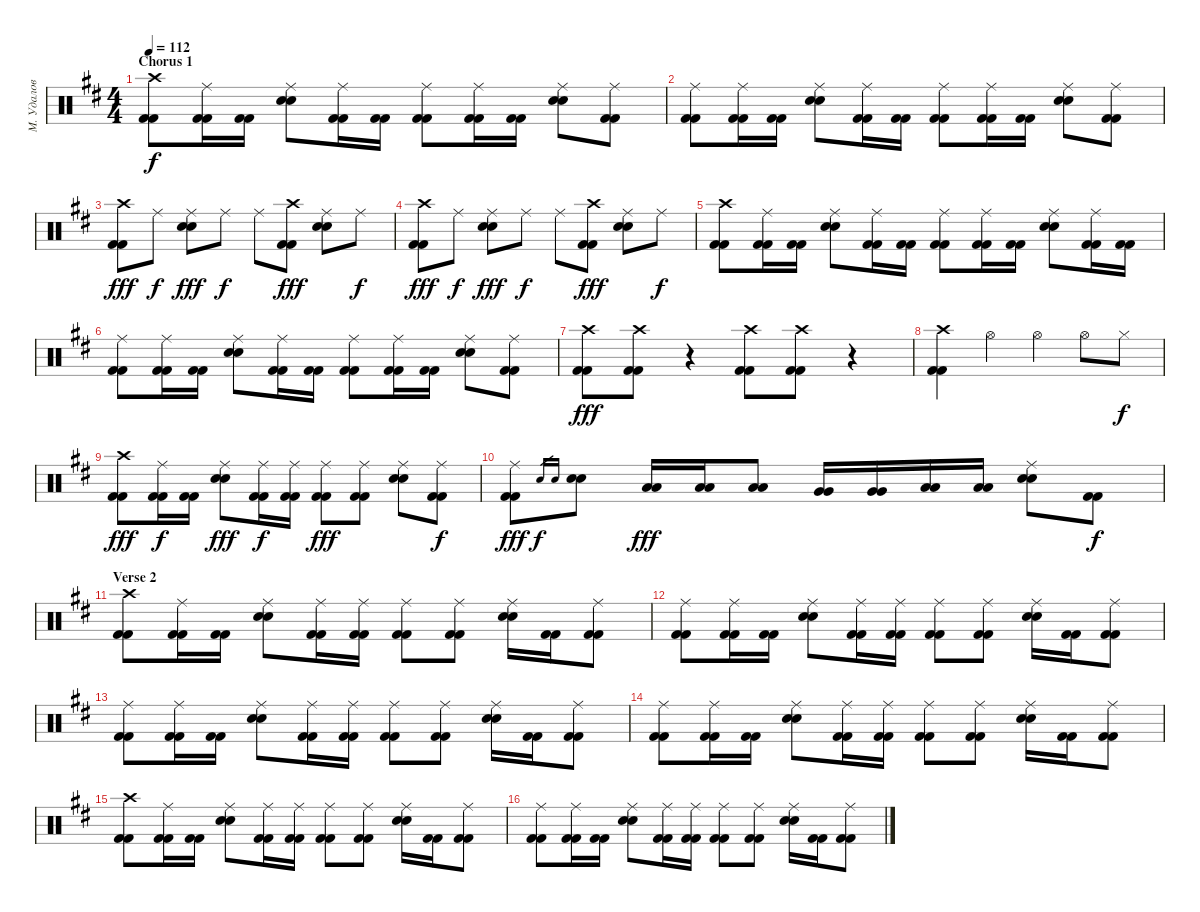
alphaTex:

\track ("М. Удалов" "М. Удалов") {instrument percussion}
\staff {score}
\articulation defaults
\ts (4 4)
\section ("" "Chorus 1")
\tempo 112
\clef neutral
\ks d
("Crash high (hit)" "Kick (hit) 2" "Kick (hit) 2").8{dy f} ("Ride (middle)" "Kick (hit) 2" "Kick (hit) 2").16 ("Kick (hit) 2" "Kick (hit) 2").16 ("Ride (middle)" "Electric Snare (hit)" "Electric Snare (hit)").8 ("Ride (middle)" "Kick (hit) 2" "Kick (hit) 2").16 ("Kick (hit) 2" "Kick (hit) 2").16 ("Ride (middle)" "Kick (hit) 2" "Kick (hit) 2").8 ("Ride (middle)" "Kick (hit) 2" "Kick (hit) 2").16 ("Kick (hit) 2" "Kick (hit) 2").16 ("Ride (middle)" "Electric Snare (hit)" "Electric Snare (hit)").8 ("Ride (middle)" "Kick (hit) 2" "Kick (hit) 2").8 |
("Ride (middle)" "Kick (hit) 2" "Kick (hit) 2").8 ("Ride (middle)" "Kick (hit) 2" "Kick (hit) 2").16 ("Kick (hit) 2" "Kick (hit) 2").16 ("Ride (middle)" "Electric Snare (hit)" "Electric Snare (hit)").8 ("Ride (middle)" "Kick (hit) 2" "Kick (hit) 2").16 ("Kick (hit) 2" "Kick (hit) 2").16 ("Ride (middle)" "Kick (hit) 2" "Kick (hit) 2").8 ("Ride (middle)" "Kick (hit) 2" "Kick (hit) 2").16 ("Kick (hit) 2" "Kick (hit) 2").16 ("Ride (middle)" "Electric Snare (hit)" "Electric Snare (hit)").8 ("Ride (middle)" "Kick (hit) 2" "Kick (hit) 2").8 |
("Crash high (hit)" "Kick (hit) 2" "Kick (hit) 2").8{dy fff} "Ride (middle)".8{dy f} ("Ride (middle)" "Electric Snare (hit)" "Electric Snare (hit)").8{dy fff} "Ride (middle)".8{dy f} "Ride (middle)".8 ("Crash high (hit)" "Kick (hit) 2" "Kick (hit) 2").8{dy fff} ("Ride (middle)" "Electric Snare (hit)" "Electric Snare (hit)").8 "Ride (middle)".8{dy f} |
("Crash high (hit)" "Kick (hit) 2" "Kick (hit) 2").8{dy fff} "Ride (middle)".8{dy f} ("Ride (middle)" "Electric Snare (hit)" "Electric Snare (hit)").8{dy fff} "Ride (middle)".8{dy f} "Ride (middle)".8 ("Crash high (hit)" "Kick (hit) 2" "Kick (hit) 2").8{dy fff} ("Ride (middle)" "Electric Snare (hit)" "Electric Snare (hit)").8 "Ride (middle)".8{dy f} |
("Crash high (hit)" "Kick (hit) 2" "Kick (hit) 2").8 ("Ride (middle)" "Kick (hit) 2" "Kick (hit) 2").16 ("Kick (hit) 2" "Kick (hit) 2").16 ("Ride (middle)" "Electric Snare (hit)" "Electric Snare (hit)").8 ("Ride (middle)" "Kick (hit) 2" "Kick (hit) 2").16 ("Kick (hit) 2" "Kick (hit) 2").16 ("Ride (middle)" "Kick (hit) 2" "Kick (hit) 2").8 ("Ride (middle)" "Kick (hit) 2" "Kick (hit) 2").16 ("Kick (hit) 2" "Kick (hit) 2").16 ("Ride (middle)" "Electric Snare (hit)" "Electric Snare (hit)").8 ("Ride (middle)" "Kick (hit) 2" "Kick (hit) 2").16 ("Kick (hit) 2" "Kick (hit) 2").16 |
("Ride (middle)" "Kick (hit) 2" "Kick (hit) 2").8 ("Ride (middle)" "Kick (hit) 2" "Kick (hit) 2").16 ("Kick (hit) 2" "Kick (hit) 2").16 ("Ride (middle)" "Electric Snare (hit)" "Electric Snare (hit)").8 ("Ride (middle)" "Kick (hit) 2" "Kick (hit) 2").16 ("Kick (hit) 2" "Kick (hit) 2").16 ("Ride (middle)" "Kick (hit) 2" "Kick (hit) 2").8 ("Ride (middle)" "Kick (hit) 2" "Kick (hit) 2").16 ("Kick (hit) 2" "Kick (hit) 2").16 ("Ride (middle)" "Electric Snare (hit)" "Electric Snare (hit)").8 ("Ride (middle)" "Kick (hit) 2" "Kick (hit) 2").8 |
("Crash high (hit)" "Kick (hit) 2" "Kick (hit) 2").8{dy fff} ("Crash high (hit)" "Kick (hit) 2" "Kick (hit) 2").8 r.4 ("Crash high (hit)" "Kick (hit) 2" "Kick (hit) 2").8 ("Crash high (hit)" "Kick (hit) 2" "Kick (hit) 2").8 r.4 |
("Crash high (hit)" "Kick (hit) 2" "Kick (hit) 2").4 "Hi-Hat (open)".4 "Hi-Hat (open)".4 "Hi-Hat (open)".8 "Hi-Hat (closed)".8{dy f} |
("Crash high (hit)" "Kick (hit) 2" "Kick (hit) 2").8{dy fff} ("Ride (middle)" "Kick (hit) 2" "Kick (hit) 2").16{dy f} ("Kick (hit) 2" "Kick (hit) 2").16 ("Ride (middle)" "Electric Snare (hit)" "Electric Snare (hit)").8{dy fff} ("Ride (middle)" "Kick (hit) 2" "Kick (hit) 2").16{dy f} ("Ride (middle)" "Kick (hit) 2" "Kick (hit) 2").16 ("Ride (middle)" "Kick (hit) 2" "Kick (hit) 2").8{dy fff} ("Ride (middle)" "Kick (hit) 2" "Kick (hit) 2").8 ("Ride (middle)" "Electric Snare (hit)" "Electric Snare (hit)").8 ("Ride (middle)" "Kick (hit) 2" "Kick (hit) 2").8{dy f} |
("Ride (middle)" "Kick (hit) 2" "Kick (hit) 2").8{dy fff} "Electric Snare (hit)".16{gr dy f} "Electric Snare (hit)".16{gr} ("Electric Snare (hit)" "Electric Snare (hit)").8 ("Low Tom (hit)" "Low Tom (hit)").16{dy fff} ("Low Tom (hit)" "Low Tom (hit)").16 ("Low Tom (hit)" "Low Tom (hit)").8 ("Very Low Tom (hit)" "Very Low Tom (hit)").16 ("Very Low Tom (hit)" "Very Low Tom (hit)").16 ("Low Tom (hit)" "Low Tom (hit)").16 ("Low Tom (hit)" "Low Tom (hit)").16 ("Ride (middle)" "Electric Snare (hit)" "Electric Snare (hit)").8 ("Kick (hit) 2" "Kick (hit) 2").8{dy f} |
\section ("" "Verse 2")
("Crash high (hit)" "Kick (hit) 2" "Kick (hit) 2").8 ("Ride (middle)" "Kick (hit) 2" "Kick (hit) 2").16 ("Kick (hit) 2" "Kick (hit) 2").16 ("Ride (middle)" "Electric Snare (hit)" "Electric Snare (hit)").8 ("Ride (middle)" "Kick (hit) 2" "Kick (hit) 2").16 ("Ride (middle)" "Kick (hit) 2" "Kick (hit) 2").16 ("Ride (middle)" "Kick (hit) 2" "Kick (hit) 2").8 ("Ride (middle)" "Kick (hit) 2" "Kick (hit) 2").8 ("Ride (middle)" "Electric Snare (hit)" "Electric Snare (hit)").16 ("Kick (hit) 2" "Kick (hit) 2").16 ("Ride (middle)" "Kick (hit) 2" "Kick (hit) 2").8 |
("Ride (middle)" "Kick (hit) 2" "Kick (hit) 2").8 ("Ride (middle)" "Kick (hit) 2" "Kick (hit) 2").16 ("Kick (hit) 2" "Kick (hit) 2").16 ("Ride (middle)" "Electric Snare (hit)" "Electric Snare (hit)").8 ("Ride (middle)" "Kick (hit) 2" "Kick (hit) 2").16 ("Ride (middle)" "Kick (hit) 2" "Kick (hit) 2").16 ("Ride (middle)" "Kick (hit) 2" "Kick (hit) 2").8 ("Ride (middle)" "Kick (hit) 2" "Kick (hit) 2").8 ("Ride (middle)" "Electric Snare (hit)" "Electric Snare (hit)").16 ("Kick (hit) 2" "Kick (hit) 2").16 ("Ride (middle)" "Kick (hit) 2" "Kick (hit) 2").8 |
("Ride (middle)" "Kick (hit) 2" "Kick (hit) 2").8 ("Ride (middle)" "Kick (hit) 2" "Kick (hit) 2").16 ("Kick (hit) 2" "Kick (hit) 2").16 ("Ride (middle)" "Electric Snare (hit)" "Electric Snare (hit)").8 ("Ride (middle)" "Kick (hit) 2" "Kick (hit) 2").16 ("Ride (middle)" "Kick (hit) 2" "Kick (hit) 2").16 ("Ride (middle)" "Kick (hit) 2" "Kick (hit) 2").8 ("Ride (middle)" "Kick (hit) 2" "Kick (hit) 2").8 ("Ride (middle)" "Electric Snare (hit)" "Electric Snare (hit)").16 ("Kick (hit) 2" "Kick (hit) 2").16 ("Ride (middle)" "Kick (hit) 2" "Kick (hit) 2").8 |
("Ride (middle)" "Kick (hit) 2" "Kick (hit) 2").8 ("Ride (middle)" "Kick (hit) 2" "Kick (hit) 2").16 ("Kick (hit) 2" "Kick (hit) 2").16 ("Ride (middle)" "Electric Snare (hit)" "Electric Snare (hit)").8 ("Ride (middle)" "Kick (hit) 2" "Kick (hit) 2").16 ("Ride (middle)" "Kick (hit) 2" "Kick (hit) 2").16 ("Ride (middle)" "Kick (hit) 2" "Kick (hit) 2").8 ("Ride (middle)" "Kick (hit) 2" "Kick (hit) 2").8 ("Ride (middle)" "Electric Snare (hit)" "Electric Snare (hit)").16 ("Kick (hit) 2" "Kick (hit) 2").16 ("Ride (middle)" "Kick (hit) 2" "Kick (hit) 2").8 |
("Crash high (hit)" "Kick (hit) 2" "Kick (hit) 2").8 ("Ride (middle)" "Kick (hit) 2" "Kick (hit) 2").16 ("Kick (hit) 2" "Kick (hit) 2").16 ("Ride (middle)" "Electric Snare (hit)" "Electric Snare (hit)").8 ("Ride (middle)" "Kick (hit) 2" "Kick (hit) 2").16 ("Ride (middle)" "Kick (hit) 2" "Kick (hit) 2").16 ("Ride (middle)" "Kick (hit) 2" "Kick (hit) 2").8 ("Ride (middle)" "Kick (hit) 2" "Kick (hit) 2").8 ("Ride (middle)" "Electric Snare (hit)" "Electric Snare (hit)").16 ("Kick (hit) 2" "Kick (hit) 2").16 ("Ride (middle)" "Kick (hit) 2" "Kick (hit) 2").8 |
("Ride (middle)" "Kick (hit) 2" "Kick (hit) 2").8 ("Ride (middle)" "Kick (hit) 2" "Kick (hit) 2").16 ("Kick (hit) 2" "Kick (hit) 2").16 ("Ride (middle)" "Electric Snare (hit)" "Electric Snare (hit)").8 ("Ride (middle)" "Kick (hit) 2" "Kick (hit) 2").16 ("Ride (middle)" "Kick (hit) 2" "Kick (hit) 2").16 ("Ride (middle)" "Kick (hit) 2" "Kick (hit) 2").8 ("Ride (middle)" "Kick (hit) 2" "Kick (hit) 2").8 ("Ride (middle)" "Electric Snare (hit)" "Electric Snare (hit)").16 ("Kick (hit) 2" "Kick (hit) 2").16 ("Ride (middle)" "Kick (hit) 2" "Kick (hit) 2").8
